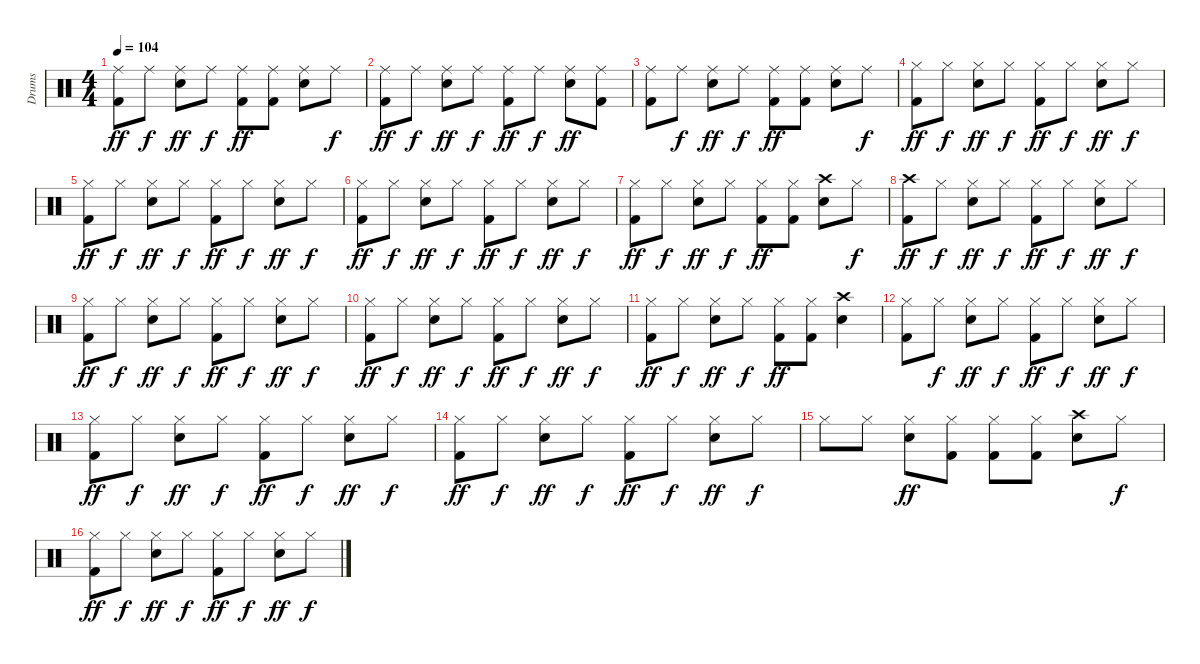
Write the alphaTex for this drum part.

\track ("Drums" "Drums") {instrument percussion}
\staff {score}
\articulation defaults
\ts (4 4)
\tempo 104
\clef neutral
\ks c
("Ride (middle)" "Kick (hit) 2").8{dy ff} "Ride (middle)".8{dy f} ("Ride (middle)" "Snare (hit) 2").8{dy ff} "Ride (middle)".8{dy f} ("Ride (middle)" "Kick (hit) 2").8{dy ff} ("Ride (middle)" "Kick (hit) 2").8 ("Ride (middle)" "Snare (hit) 2").8 "Ride (middle)".8{dy f} |
("Ride (middle)" "Kick (hit) 2").8{dy ff} "Ride (middle)".8{dy f} ("Ride (middle)" "Snare (hit) 2").8{dy ff} "Ride (middle)".8{dy f} ("Ride (middle)" "Kick (hit) 2").8{dy ff} "Ride (middle)".8{dy f} ("Ride (middle)" "Snare (hit) 2").8{dy ff} ("Ride (middle)" "Kick (hit) 2").8 |
("Ride (middle)" "Kick (hit) 2").8 "Ride (middle)".8{dy f} ("Ride (middle)" "Snare (hit) 2").8{dy ff} "Ride (middle)".8{dy f} ("Ride (middle)" "Kick (hit) 2").8{dy ff} ("Ride (middle)" "Kick (hit) 2").8 ("Ride (middle)" "Snare (hit) 2").8 "Ride (middle)".8{dy f} |
("Hi-Hat (closed)" "Kick (hit) 2").8{dy ff} "Hi-Hat (closed)".8{dy f} ("Hi-Hat (closed)" "Snare (hit) 2").8{dy ff} "Hi-Hat (closed)".8{dy f} ("Hi-Hat (closed)" "Kick (hit) 2").8{dy ff} "Hi-Hat (closed)".8{dy f} ("Hi-Hat (closed)" "Snare (hit) 2").8{dy ff} "Hi-Hat (closed)".8{dy f} |
("Hi-Hat (closed)" "Kick (hit) 2").8{dy ff} "Hi-Hat (closed)".8{dy f} ("Hi-Hat (closed)" "Snare (hit) 2").8{dy ff} "Hi-Hat (closed)".8{dy f} ("Hi-Hat (closed)" "Kick (hit) 2").8{dy ff} "Hi-Hat (closed)".8{dy f} ("Hi-Hat (closed)" "Snare (hit) 2").8{dy ff} "Hi-Hat (closed)".8{dy f} |
("Hi-Hat (closed)" "Kick (hit) 2").8{dy ff} "Hi-Hat (closed)".8{dy f} ("Hi-Hat (closed)" "Snare (hit) 2").8{dy ff} "Hi-Hat (closed)".8{dy f} ("Hi-Hat (closed)" "Kick (hit) 2").8{dy ff} "Hi-Hat (closed)".8{dy f} ("Hi-Hat (closed)" "Snare (hit) 2").8{dy ff} "Hi-Hat (closed)".8{dy f} |
("Hi-Hat (closed)" "Kick (hit) 2").8{dy ff} "Hi-Hat (closed)".8{dy f} ("Hi-Hat (closed)" "Snare (hit) 2").8{dy ff} "Hi-Hat (closed)".8{dy f} ("Hi-Hat (closed)" "Kick (hit) 2").8{dy ff} ("Hi-Hat (closed)" "Kick (hit) 2").8 ("Crash high (hit)" "Snare (hit) 2").8 "Hi-Hat (closed)".8{dy f} |
("Crash high (hit)" "Kick (hit) 2").8{dy ff} "Hi-Hat (closed)".8{dy f} ("Hi-Hat (closed)" "Snare (hit) 2").8{dy ff} "Hi-Hat (closed)".8{dy f} ("Hi-Hat (closed)" "Kick (hit) 2").8{dy ff} "Hi-Hat (closed)".8{dy f} ("Hi-Hat (closed)" "Snare (hit) 2").8{dy ff} "Hi-Hat (closed)".8{dy f} |
("Hi-Hat (closed)" "Kick (hit) 2").8{dy ff} "Hi-Hat (closed)".8{dy f} ("Hi-Hat (closed)" "Snare (hit) 2").8{dy ff} "Hi-Hat (closed)".8{dy f} ("Hi-Hat (closed)" "Kick (hit) 2").8{dy ff} "Hi-Hat (closed)".8{dy f} ("Hi-Hat (closed)" "Snare (hit) 2").8{dy ff} "Hi-Hat (closed)".8{dy f} |
("Hi-Hat (closed)" "Kick (hit) 2").8{dy ff} "Hi-Hat (closed)".8{dy f} ("Hi-Hat (closed)" "Snare (hit) 2").8{dy ff} "Hi-Hat (closed)".8{dy f} ("Hi-Hat (closed)" "Kick (hit) 2").8{dy ff} "Hi-Hat (closed)".8{dy f} ("Hi-Hat (closed)" "Snare (hit) 2").8{dy ff} "Hi-Hat (closed)".8{dy f} |
("Hi-Hat (closed)" "Kick (hit) 2").8{dy ff} "Hi-Hat (closed)".8{dy f} ("Hi-Hat (closed)" "Snare (hit) 2").8{dy ff} "Hi-Hat (closed)".8{dy f} ("Hi-Hat (closed)" "Kick (hit) 2").8{dy ff} ("Hi-Hat (closed)" "Kick (hit) 2").8 ("Crash high (hit)" "Snare (hit) 2").4 |
("Hi-Hat (closed)" "Kick (hit) 2").8 "Hi-Hat (closed)".8{dy f} ("Hi-Hat (closed)" "Snare (hit) 2").8{dy ff} "Hi-Hat (closed)".8{dy f} ("Hi-Hat (closed)" "Kick (hit) 2").8{dy ff} "Hi-Hat (closed)".8{dy f} ("Hi-Hat (closed)" "Snare (hit) 2").8{dy ff} "Hi-Hat (closed)".8{dy f} |
("Hi-Hat (closed)" "Kick (hit) 2").8{dy ff} "Hi-Hat (closed)".8{dy f} ("Hi-Hat (closed)" "Snare (hit) 2").8{dy ff} "Hi-Hat (closed)".8{dy f} ("Hi-Hat (closed)" "Kick (hit) 2").8{dy ff} "Hi-Hat (closed)".8{dy f} ("Hi-Hat (closed)" "Snare (hit) 2").8{dy ff} "Hi-Hat (closed)".8{dy f} |
("Hi-Hat (closed)" "Kick (hit) 2").8{dy ff} "Hi-Hat (closed)".8{dy f} ("Hi-Hat (closed)" "Snare (hit) 2").8{dy ff} "Hi-Hat (closed)".8{dy f} ("Hi-Hat (closed)" "Kick (hit) 2").8{dy ff} "Hi-Hat (closed)".8{dy f} ("Hi-Hat (closed)" "Snare (hit) 2").8{dy ff} "Hi-Hat (closed)".8{dy f} |
"Hi-Hat (closed)".8 "Hi-Hat (closed)".8 ("Hi-Hat (closed)" "Snare (hit) 2").8{dy ff} ("Hi-Hat (closed)" "Kick (hit) 2").8 ("Hi-Hat (closed)" "Kick (hit) 2").8 ("Hi-Hat (closed)" "Kick (hit) 2").8 ("Crash high (hit)" "Snare (hit) 2").8 "Hi-Hat (closed)".8{dy f} |
("Hi-Hat (closed)" "Kick (hit) 2").8{dy ff} "Hi-Hat (closed)".8{dy f} ("Hi-Hat (closed)" "Snare (hit) 2").8{dy ff} "Hi-Hat (closed)".8{dy f} ("Hi-Hat (closed)" "Kick (hit) 2").8{dy ff} "Hi-Hat (closed)".8{dy f} ("Hi-Hat (closed)" "Snare (hit) 2").8{dy ff} "Hi-Hat (closed)".8{dy f}
